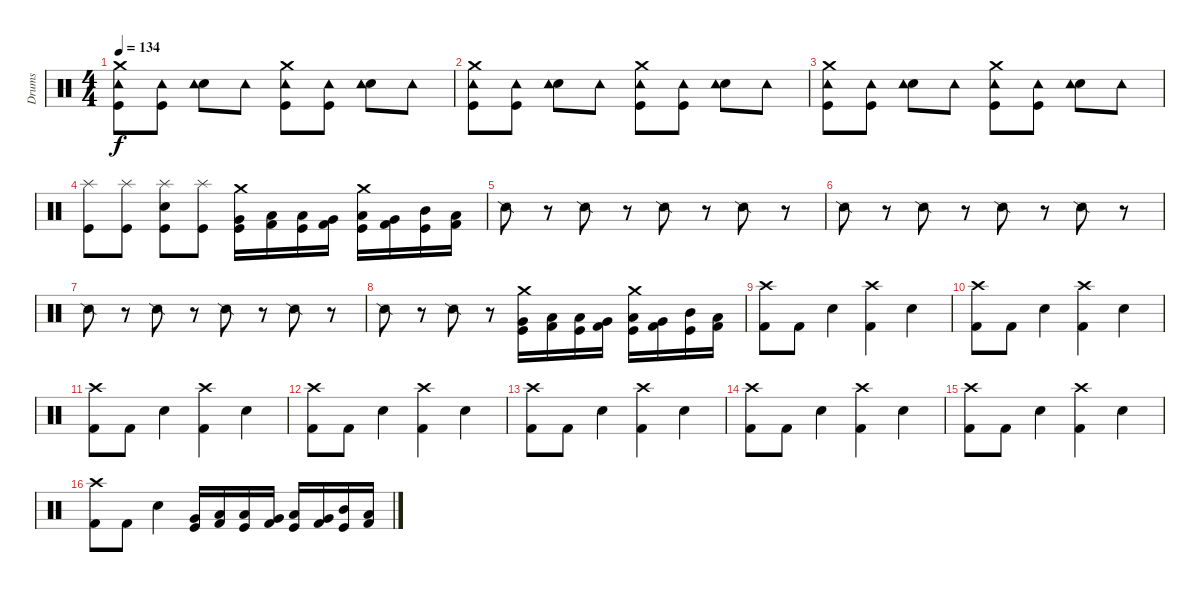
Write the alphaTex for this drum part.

\track ("Drums" "Drums") {instrument percussion}
\staff {score}
\articulation defaults
\ts (4 4)
\tempo 134
\clef neutral
\ks c
("Crash medium (hit)" "Tambourine (hit)" "Kick (hit)").8{dy f} ("Kick (hit)" "Tambourine (hit)").8 ("Electric Snare (hit)" "Tambourine (hit)").8 "Tambourine (hit)".8 ("Kick (hit)" "Tambourine (hit)" "Crash medium (hit)").8 ("Kick (hit)" "Tambourine (hit)").8 ("Electric Snare (hit)" "Tambourine (hit)").8 "Tambourine (hit)".8 |
("Crash medium (hit)" "Tambourine (hit)" "Kick (hit)").8 ("Kick (hit)" "Tambourine (hit)").8 ("Electric Snare (hit)" "Tambourine (hit)").8 "Tambourine (hit)".8 ("Kick (hit)" "Tambourine (hit)" "Crash medium (hit)").8 ("Kick (hit)" "Tambourine (hit)").8 ("Electric Snare (hit)" "Tambourine (hit)").8 "Tambourine (hit)".8 |
("Crash medium (hit)" "Tambourine (hit)" "Kick (hit)").8 ("Kick (hit)" "Tambourine (hit)").8 ("Electric Snare (hit)" "Tambourine (hit)").8 "Tambourine (hit)".8 ("Kick (hit)" "Tambourine (hit)" "Crash medium (hit)").8 ("Kick (hit)" "Tambourine (hit)").8 ("Electric Snare (hit)" "Tambourine (hit)").8 "Tambourine (hit)".8 |
("Splash (hit)" "Kick (hit)").8 ("Splash (hit)" "Kick (hit)").8 ("Splash (hit)" "Kick (hit)" "Electric Snare (hit)").8 ("Splash (hit)" "Kick (hit)").8 ("Very Low Tom (hit)" "Kick (hit)" "Crash medium (hit)").16 ("Kick (hit) 2" "Low Floor Tom (hit)").16 ("Kick (hit)" "Low Tom (hit)").16 ("Kick (hit) 2" "Very Low Tom (hit)").16 ("Kick (hit)" "Low Tom (hit)" "Crash medium (hit)").16 ("Kick (hit) 2" "Very Low Tom (hit)").16 ("Kick (hit)" "Mid Tom (hit)").16 ("Kick (hit) 2" "Low Tom (hit)").16 |
"Snare (side stick) 2".8 r.8 "Snare (side stick) 2".8 r.8 "Snare (side stick) 2".8 r.8 "Snare (side stick) 2".8 r.8 |
"Snare (side stick) 2".8 r.8 "Snare (side stick) 2".8 r.8 "Snare (side stick) 2".8 r.8 "Snare (side stick) 2".8 r.8 |
"Snare (side stick) 2".8 r.8 "Snare (side stick) 2".8 r.8 "Snare (side stick) 2".8 r.8 "Snare (side stick) 2".8 r.8 |
"Snare (side stick) 2".8 r.8 "Snare (side stick) 2".8 r.8 ("Very Low Tom (hit)" "Kick (hit)" "Crash medium (hit)").16 ("Kick (hit) 2" "Low Floor Tom (hit)").16 ("Kick (hit)" "Low Tom (hit)").16 ("Kick (hit) 2" "Very Low Tom (hit)").16 ("Kick (hit)" "Low Tom (hit)" "Crash medium (hit)").16 ("Kick (hit) 2" "Very Low Tom (hit)").16 ("Kick (hit)" "Mid Tom (hit)").16 ("Kick (hit) 2" "Low Tom (hit)").16 |
("Crash high (hit)" "Kick (hit) 2").8 "Kick (hit) 2".8 "Electric Snare (hit)".4 ("Kick (hit) 2" "Crash high (hit)").4 "Electric Snare (hit)".4 |
("Kick (hit) 2" "Crash high (hit)").8 "Kick (hit) 2".8 "Electric Snare (hit)".4 ("Kick (hit) 2" "Crash high (hit)").4 "Electric Snare (hit)".4 |
("Crash high (hit)" "Kick (hit) 2").8 "Kick (hit) 2".8 "Electric Snare (hit)".4 ("Kick (hit) 2" "Crash high (hit)").4 "Electric Snare (hit)".4 |
("Kick (hit) 2" "Crash high (hit)").8 "Kick (hit) 2".8 "Electric Snare (hit)".4 ("Kick (hit) 2" "Crash high (hit)").4 "Electric Snare (hit)".4 |
("Crash high (hit)" "Kick (hit) 2").8 "Kick (hit) 2".8 "Electric Snare (hit)".4 ("Kick (hit) 2" "Crash high (hit)").4 "Electric Snare (hit)".4 |
("Kick (hit) 2" "Crash high (hit)").8 "Kick (hit) 2".8 "Electric Snare (hit)".4 ("Kick (hit) 2" "Crash high (hit)").4 "Electric Snare (hit)".4 |
("Crash high (hit)" "Kick (hit) 2").8 "Kick (hit) 2".8 "Electric Snare (hit)".4 ("Kick (hit) 2" "Crash high (hit)").4 "Electric Snare (hit)".4 |
("Kick (hit) 2" "Crash high (hit)").8 "Kick (hit) 2".8 "Electric Snare (hit)".4 ("Very Low Tom (hit)" "Kick (hit)").16 ("Kick (hit) 2" "Low Floor Tom (hit)").16 ("Kick (hit)" "Low Tom (hit)").16 ("Kick (hit) 2" "Very Low Tom (hit)").16 ("Kick (hit)" "Low Tom (hit)").16 ("Kick (hit) 2" "Very Low Tom (hit)").16 ("Kick (hit)" "Mid Tom (hit)").16 ("Kick (hit) 2" "Low Tom (hit)").16
